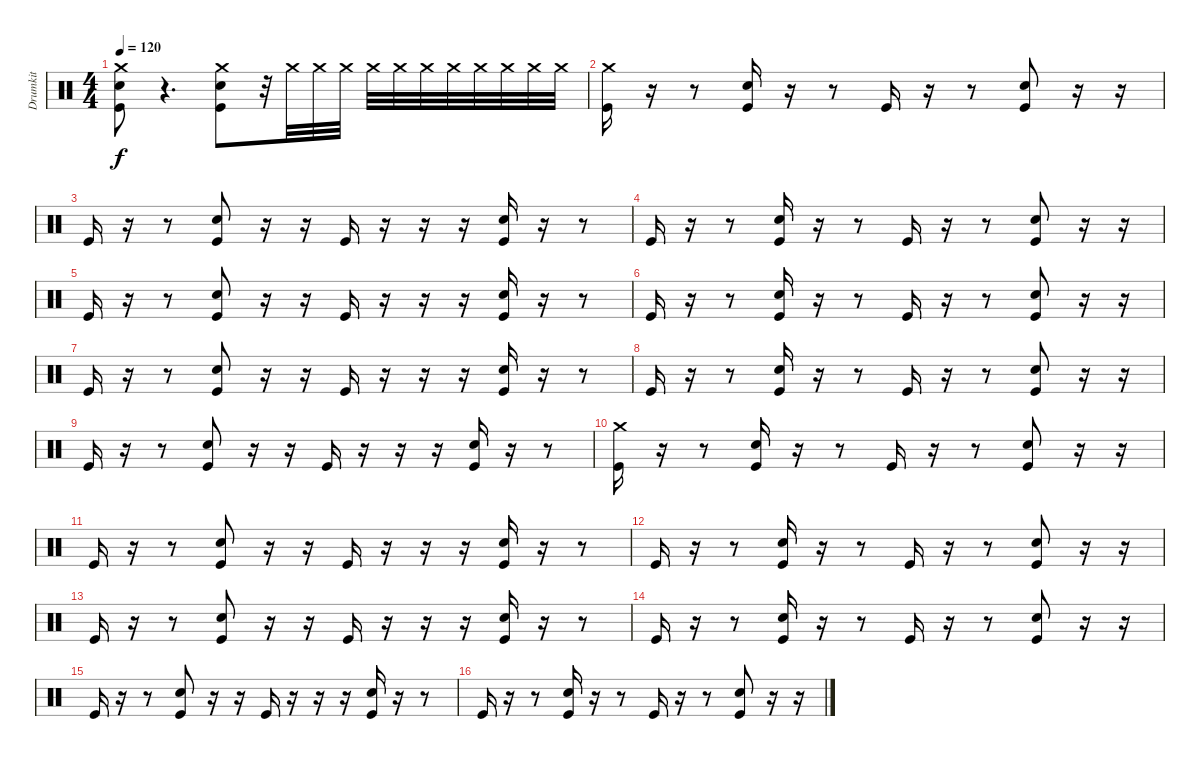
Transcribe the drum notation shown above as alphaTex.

\track ("Drumkit" "Drumkit") {instrument percussion}
\staff {score}
\articulation defaults
\ts (4 4)
\tempo 120
\clef neutral
\ks c
("Crash medium (hit)" "Kick (hit)" "Snare (hit) 2").8{dy f} r.4{d} ("Kick (hit)" "Crash medium (hit)" "Snare (hit) 2").8 r.32 "Crash medium (hit)".32 "Crash medium (hit)".32 "Crash medium (hit)".32 "Crash medium (hit)".32 "Crash medium (hit)".32 "Crash medium (hit)".32 "Crash medium (hit)".32 "Crash medium (hit)".32 "Crash medium (hit)".32 "Crash medium (hit)".32 "Crash medium (hit)".32 |
("Crash medium (hit)" "Kick (hit)").16 r.16 r.8 ("Kick (hit)" "Snare (hit) 2").16 r.16 r.8 "Kick (hit)".16 r.16 r.8 ("Kick (hit)" "Snare (hit) 2").8 r.16 r.16 |
"Kick (hit)".16 r.16 r.8 ("Kick (hit)" "Snare (hit) 2").8 r.16 r.16 "Kick (hit)".16 r.16 r.16 r.16 ("Kick (hit)" "Snare (hit) 2").16 r.16 r.8 |
"Kick (hit)".16 r.16 r.8 ("Kick (hit)" "Snare (hit) 2").16 r.16 r.8 "Kick (hit)".16 r.16 r.8 ("Kick (hit)" "Snare (hit) 2").8 r.16 r.16 |
"Kick (hit)".16 r.16 r.8 ("Kick (hit)" "Snare (hit) 2").8 r.16 r.16 "Kick (hit)".16 r.16 r.16 r.16 ("Kick (hit)" "Snare (hit) 2").16 r.16 r.8 |
"Kick (hit)".16 r.16 r.8 ("Kick (hit)" "Snare (hit) 2").16 r.16 r.8 "Kick (hit)".16 r.16 r.8 ("Kick (hit)" "Snare (hit) 2").8 r.16 r.16 |
"Kick (hit)".16 r.16 r.8 ("Kick (hit)" "Snare (hit) 2").8 r.16 r.16 "Kick (hit)".16 r.16 r.16 r.16 ("Kick (hit)" "Snare (hit) 2").16 r.16 r.8 |
"Kick (hit)".16 r.16 r.8 ("Kick (hit)" "Snare (hit) 2").16 r.16 r.8 "Kick (hit)".16 r.16 r.8 ("Kick (hit)" "Snare (hit) 2").8 r.16 r.16 |
"Kick (hit)".16 r.16 r.8 ("Kick (hit)" "Snare (hit) 2").8 r.16 r.16 "Kick (hit)".16 r.16 r.16 r.16 ("Kick (hit)" "Snare (hit) 2").16 r.16 r.8 |
("Crash medium (hit)" "Kick (hit)").16 r.16 r.8 ("Kick (hit)" "Snare (hit) 2").16 r.16 r.8 "Kick (hit)".16 r.16 r.8 ("Kick (hit)" "Snare (hit) 2").8 r.16 r.16 |
"Kick (hit)".16 r.16 r.8 ("Kick (hit)" "Snare (hit) 2").8 r.16 r.16 "Kick (hit)".16 r.16 r.16 r.16 ("Kick (hit)" "Snare (hit) 2").16 r.16 r.8 |
"Kick (hit)".16 r.16 r.8 ("Kick (hit)" "Snare (hit) 2").16 r.16 r.8 "Kick (hit)".16 r.16 r.8 ("Kick (hit)" "Snare (hit) 2").8 r.16 r.16 |
"Kick (hit)".16 r.16 r.8 ("Kick (hit)" "Snare (hit) 2").8 r.16 r.16 "Kick (hit)".16 r.16 r.16 r.16 ("Kick (hit)" "Snare (hit) 2").16 r.16 r.8 |
"Kick (hit)".16 r.16 r.8 ("Kick (hit)" "Snare (hit) 2").16 r.16 r.8 "Kick (hit)".16 r.16 r.8 ("Kick (hit)" "Snare (hit) 2").8 r.16 r.16 |
"Kick (hit)".16 r.16 r.8 ("Kick (hit)" "Snare (hit) 2").8 r.16 r.16 "Kick (hit)".16 r.16 r.16 r.16 ("Kick (hit)" "Snare (hit) 2").16 r.16 r.8 |
"Kick (hit)".16 r.16 r.8 ("Kick (hit)" "Snare (hit) 2").16 r.16 r.8 "Kick (hit)".16 r.16 r.8 ("Kick (hit)" "Snare (hit) 2").8 r.16 r.16
